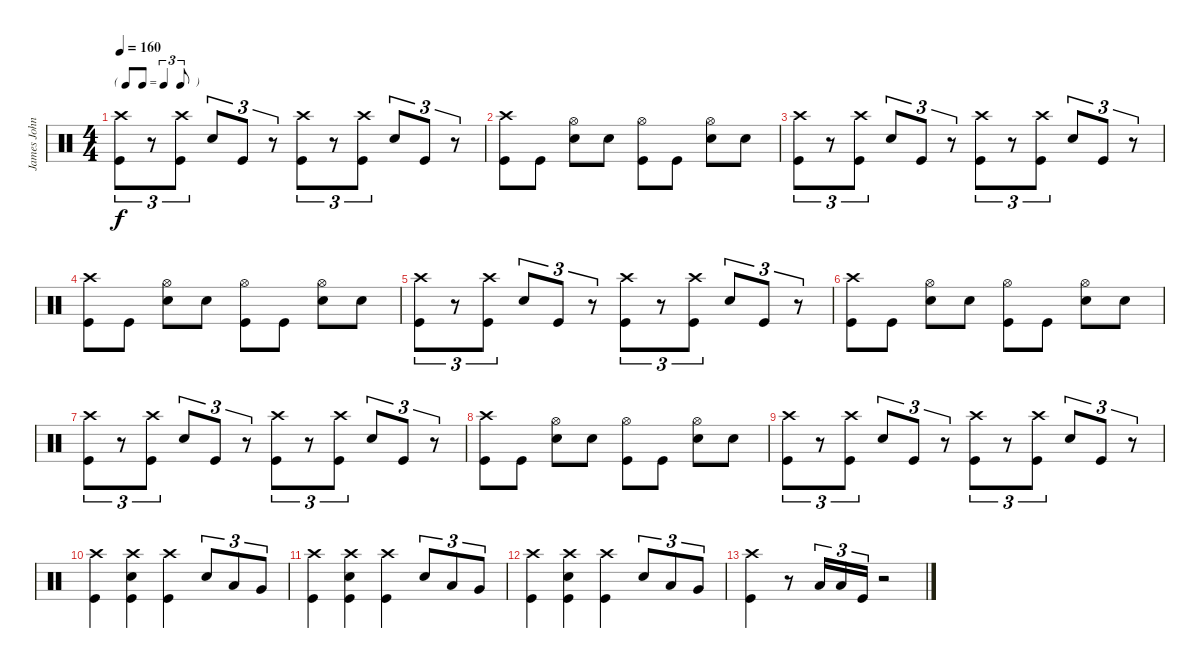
\track ("James Johnston" "James John") {instrument percussion}
\staff {score}
\articulation defaults
\ts (4 4)
\tf triplet8th
\tempo 160
\clef neutral
\ks c
("Crash high (hit)" "Kick (hit)").8{tu (3 2) dy f} r.8{tu (3 2)} ("Crash high (hit)" "Kick (hit)").8{tu (3 2)} "Electric Snare (hit)".8{tu (3 2)} "Kick (hit)".8{tu (3 2)} r.8{tu (3 2)} ("Crash high (hit)" "Kick (hit)").8{tu (3 2)} r.8{tu (3 2)} ("Crash high (hit)" "Kick (hit)").8{tu (3 2)} "Electric Snare (hit)".8{tu (3 2)} "Kick (hit)".8{tu (3 2)} r.8{tu (3 2)} |
("Crash high (hit)" "Kick (hit)").8 "Kick (hit)".8 ("Hi-Hat (open)" "Electric Snare (hit)").8 "Electric Snare (hit)".8 ("Hi-Hat (open)" "Kick (hit)").8 "Kick (hit)".8 ("Hi-Hat (open)" "Electric Snare (hit)").8 "Electric Snare (hit)".8 |
("Crash high (hit)" "Kick (hit)").8{tu (3 2)} r.8{tu (3 2)} ("Crash high (hit)" "Kick (hit)").8{tu (3 2)} "Electric Snare (hit)".8{tu (3 2)} "Kick (hit)".8{tu (3 2)} r.8{tu (3 2)} ("Crash high (hit)" "Kick (hit)").8{tu (3 2)} r.8{tu (3 2)} ("Crash high (hit)" "Kick (hit)").8{tu (3 2)} "Electric Snare (hit)".8{tu (3 2)} "Kick (hit)".8{tu (3 2)} r.8{tu (3 2)} |
("Crash high (hit)" "Kick (hit)").8 "Kick (hit)".8 ("Hi-Hat (open)" "Electric Snare (hit)").8 "Electric Snare (hit)".8 ("Hi-Hat (open)" "Kick (hit)").8 "Kick (hit)".8 ("Hi-Hat (open)" "Electric Snare (hit)").8 "Electric Snare (hit)".8 |
("Crash high (hit)" "Kick (hit)").8{tu (3 2)} r.8{tu (3 2)} ("Crash high (hit)" "Kick (hit)").8{tu (3 2)} "Electric Snare (hit)".8{tu (3 2)} "Kick (hit)".8{tu (3 2)} r.8{tu (3 2)} ("Crash high (hit)" "Kick (hit)").8{tu (3 2)} r.8{tu (3 2)} ("Crash high (hit)" "Kick (hit)").8{tu (3 2)} "Electric Snare (hit)".8{tu (3 2)} "Kick (hit)".8{tu (3 2)} r.8{tu (3 2)} |
("Crash high (hit)" "Kick (hit)").8 "Kick (hit)".8 ("Hi-Hat (open)" "Electric Snare (hit)").8 "Electric Snare (hit)".8 ("Hi-Hat (open)" "Kick (hit)").8 "Kick (hit)".8 ("Hi-Hat (open)" "Electric Snare (hit)").8 "Electric Snare (hit)".8 |
("Crash high (hit)" "Kick (hit)").8{tu (3 2)} r.8{tu (3 2)} ("Crash high (hit)" "Kick (hit)").8{tu (3 2)} "Electric Snare (hit)".8{tu (3 2)} "Kick (hit)".8{tu (3 2)} r.8{tu (3 2)} ("Crash high (hit)" "Kick (hit)").8{tu (3 2)} r.8{tu (3 2)} ("Crash high (hit)" "Kick (hit)").8{tu (3 2)} "Electric Snare (hit)".8{tu (3 2)} "Kick (hit)".8{tu (3 2)} r.8{tu (3 2)} |
("Crash high (hit)" "Kick (hit)").8 "Kick (hit)".8 ("Hi-Hat (open)" "Electric Snare (hit)").8 "Electric Snare (hit)".8 ("Hi-Hat (open)" "Kick (hit)").8 "Kick (hit)".8 ("Hi-Hat (open)" "Electric Snare (hit)").8 "Electric Snare (hit)".8 |
("Crash high (hit)" "Kick (hit)").8{tu (3 2)} r.8{tu (3 2)} ("Crash high (hit)" "Kick (hit)").8{tu (3 2)} "Electric Snare (hit)".8{tu (3 2)} "Kick (hit)".8{tu (3 2)} r.8{tu (3 2)} ("Crash high (hit)" "Kick (hit)").8{tu (3 2)} r.8{tu (3 2)} ("Crash high (hit)" "Kick (hit)").8{tu (3 2)} "Electric Snare (hit)".8{tu (3 2)} "Kick (hit)".8{tu (3 2)} r.8{tu (3 2)} |
("Crash high (hit)" "Kick (hit)").4 ("Crash high (hit)" "Electric Snare (hit)" "Kick (hit)").4 ("Crash high (hit)" "Kick (hit)").4 "Electric Snare (hit)".8{tu (3 2)} "Low Tom (hit)".8{tu (3 2)} "Very Low Tom (hit)".8{tu (3 2)} |
("Crash high (hit)" "Kick (hit)").4 ("Crash high (hit)" "Electric Snare (hit)" "Kick (hit)").4 ("Crash high (hit)" "Kick (hit)").4 "Electric Snare (hit)".8{tu (3 2)} "Low Tom (hit)".8{tu (3 2)} "Very Low Tom (hit)".8{tu (3 2)} |
("Crash high (hit)" "Kick (hit)").4 ("Crash high (hit)" "Electric Snare (hit)" "Kick (hit)").4 ("Crash high (hit)" "Kick (hit)").4 "Electric Snare (hit)".8{tu (3 2)} "Low Tom (hit)".8{tu (3 2)} "Very Low Tom (hit)".8{tu (3 2)} |
("Crash high (hit)" "Kick (hit)").4 r.8 "Low Tom (hit)".16{tu (3 2)} "Low Tom (hit)".16{tu (3 2)} "Kick (hit)".16{tu (3 2)} r.2
